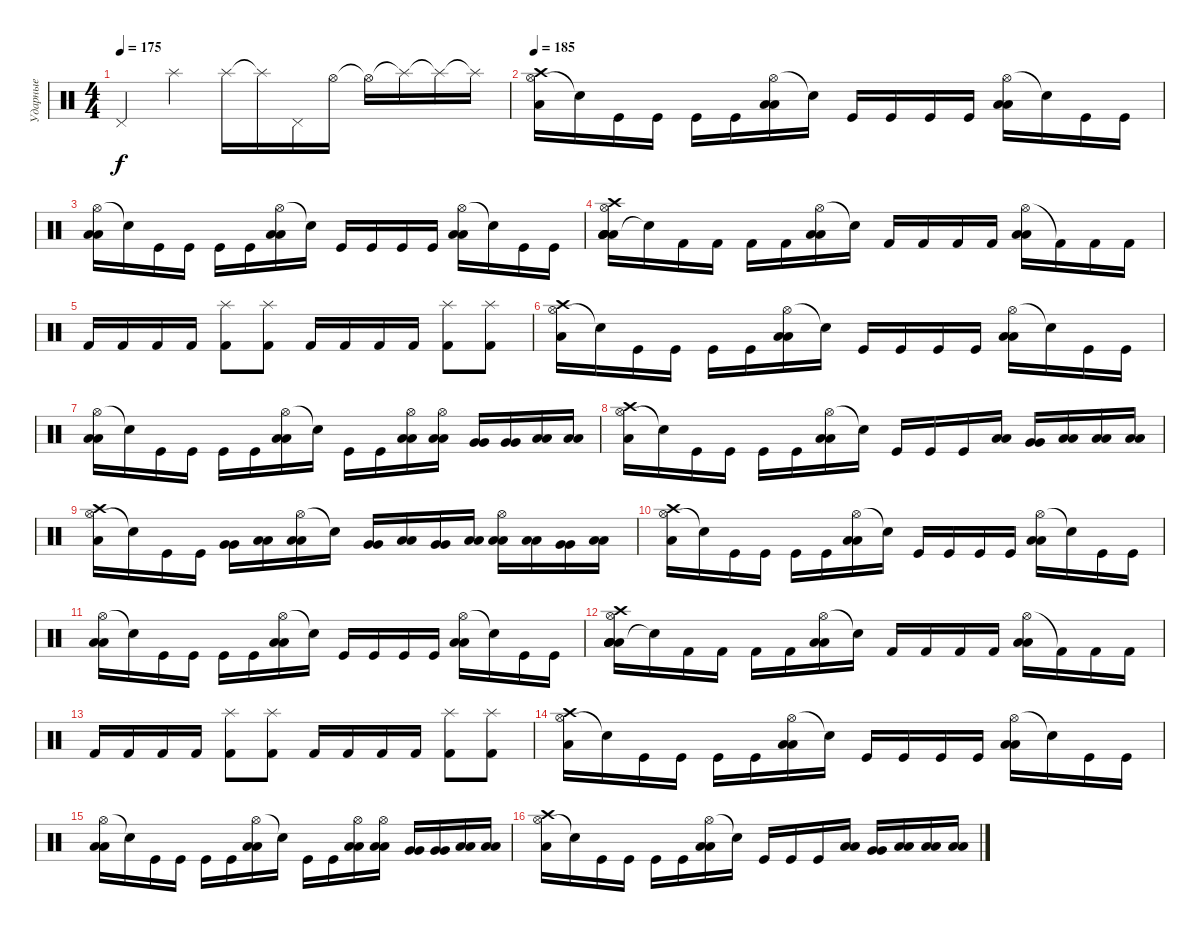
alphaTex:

\track ("Ударные" "Ударные") {instrument percussion}
\staff {score}
\articulation defaults
\ts (4 4)
\tempo 175
\clef neutral
\ks c "Pedal Hi-Hat (hit)".4{dy f} "Splash (hit)".4 "Splash (hit)".16 "Splash (hit)"{t}.16 "Pedal Hi-Hat (hit)".16 "Hi-Hat (open)".16 "Hi-Hat (open)"{t}.16 "Splash (hit)"{t}.16 "Splash (hit)"{t}.16 "Splash (hit)"{t}.16
|
\tempo 185
("Hi-Hat (open)" "Crash high (hit)" "Low Tom (hit)").16{volume 13} "Snare (hit)"{t}.16 "Kick (hit)".16 "Kick (hit)".16 "Kick (hit)".16 "Kick (hit)".16 ("Hi-Hat (open)" "Low Tom (hit)" "Low Tom (hit)").16 "Snare (hit)"{t}.16 "Kick (hit)".16 "Kick (hit)".16 "Kick (hit)".16 "Kick (hit)".16 ("Hi-Hat (open)" "Low Tom (hit)" "Low Tom (hit)").16 "Snare (hit)"{t}.16 "Kick (hit)".16 "Kick (hit)".16 |
("Hi-Hat (open)" "Low Tom (hit)" "Low Tom (hit)").16 "Snare (hit)"{t}.16 "Kick (hit)".16 "Kick (hit)".16 "Kick (hit)".16 "Kick (hit)".16 ("Hi-Hat (open)" "Low Tom (hit)" "Low Tom (hit)").16 "Snare (hit)"{t}.16 "Kick (hit)".16 "Kick (hit)".16 "Kick (hit)".16 "Kick (hit)".16 ("Hi-Hat (open)" "Low Tom (hit)" "Low Tom (hit)").16 "Snare (hit)"{t}.16 "Kick (hit)".16 "Kick (hit)".16 |
("Low Floor Tom (hit)" "Hi-Hat (open)" "Crash high (hit)" "Low Tom (hit)" "Low Floor Tom (hit)" "Low Floor Tom (hit)").16 "Snare (hit)"{t}.16 "Kick (hit) 2".16 "Kick (hit) 2".16 "Kick (hit) 2".16 "Kick (hit) 2".16 ("Hi-Hat (open)" "Low Tom (hit)" "Low Tom (hit)").16 "Snare (hit)"{t}.16 "Kick (hit) 2".16 "Kick (hit) 2".16 "Kick (hit) 2".16 "Kick (hit) 2".16 ("Hi-Hat (open)" "Low Tom (hit)" "Low Tom (hit)").16 "Kick (hit) 2"{t}.16 "Kick (hit) 2".16 "Kick (hit) 2".16 |
"Kick (hit) 2".16 "Kick (hit) 2".16 "Kick (hit) 2".16 "Kick (hit) 2".16 ("Splash (hit)" "Kick (hit) 2").8 ("Splash (hit)" "Kick (hit) 2").8 "Kick (hit) 2".16 "Kick (hit) 2".16 "Kick (hit) 2".16 "Kick (hit) 2".16 ("Splash (hit)" "Kick (hit) 2").8 ("Splash (hit)" "Kick (hit) 2").8 |
("Hi-Hat (open)" "Crash high (hit)" "Low Tom (hit)").16{volume 13} "Snare (hit)"{t}.16 "Kick (hit)".16 "Kick (hit)".16 "Kick (hit)".16 "Kick (hit)".16 ("Hi-Hat (open)" "Low Tom (hit)" "Low Tom (hit)").16 "Snare (hit)"{t}.16 "Kick (hit)".16 "Kick (hit)".16 "Kick (hit)".16 "Kick (hit)".16 ("Hi-Hat (open)" "Low Tom (hit)" "Low Tom (hit)").16 "Snare (hit)"{t}.16 "Kick (hit)".16 "Kick (hit)".16 |
("Hi-Hat (open)" "Low Tom (hit)" "Low Tom (hit)").16 "Snare (hit)"{t}.16 "Kick (hit)".16 "Kick (hit)".16 "Kick (hit)".16 "Kick (hit)".16 ("Hi-Hat (open)" "Low Tom (hit)" "Low Tom (hit)").16 "Snare (hit)"{t}.16 "Kick (hit)".16 "Kick (hit)".16 ("Hi-Hat (open)" "Low Tom (hit)" "Low Tom (hit)").16 ("Hi-Hat (open)" "Low Tom (hit)" "Low Tom (hit)").16 ("Very Low Tom (hit)" "Very Low Tom (hit)").16{balance 10} ("Very Low Tom (hit)" "Very Low Tom (hit)").16 ("Low Floor Tom (hit)" "Low Floor Tom (hit)").16{balance 6} ("Low Floor Tom (hit)" "Low Floor Tom (hit)").16 |
("Hi-Hat (open)" "Crash high (hit)" "Low Tom (hit)").16{balance 8} "Snare (hit)"{t}.16 "Kick (hit)".16 "Kick (hit)".16 "Kick (hit)".16 "Kick (hit)".16 ("Hi-Hat (open)" "Low Tom (hit)" "Low Tom (hit)").16 "Snare (hit)"{t}.16 "Kick (hit)".16 "Kick (hit)".16 "Kick (hit)".16 ("Low Tom (hit)" "Low Tom (hit)").16 ("Very Low Tom (hit)" "Very Low Tom (hit)").16{balance 10} ("Low Floor Tom (hit)" "Low Floor Tom (hit)").16{balance 6} ("Low Floor Tom (hit)" "Low Floor Tom (hit)").16 ("Low Floor Tom (hit)" "Low Floor Tom (hit)").16 |
("Hi-Hat (open)" "Crash high (hit)" "Low Tom (hit)").16{volume 13 balance 8} "Snare (hit)"{t}.16 "Kick (hit)".16 "Kick (hit)".16 ("Very Low Tom (hit)" "Very Low Tom (hit)").16{balance 10} ("Low Floor Tom (hit)" "Low Floor Tom (hit)").16{balance 5} ("Hi-Hat (open)" "Low Tom (hit)" "Low Tom (hit)").16{balance 8} "Snare (hit)"{t}.16 ("Very Low Tom (hit)" "Very Low Tom (hit)").16{balance 10} ("Low Floor Tom (hit)" "Low Floor Tom (hit)").16 ("Very Low Tom (hit)" "Very Low Tom (hit)").16{balance 10} ("Low Floor Tom (hit)" "Low Floor Tom (hit)").16 ("Hi-Hat (open)" "Low Tom (hit)" "Low Tom (hit)").16{balance 8} ("Low Floor Tom (hit)" "Low Floor Tom (hit)").16{balance 6} ("Very Low Tom (hit)" "Very Low Tom (hit)").16 ("Low Floor Tom (hit)" "Low Floor Tom (hit)").16{balance 5} |
("Hi-Hat (open)" "Crash high (hit)" "Low Tom (hit)").16{volume 13} "Snare (hit)"{t}.16 "Kick (hit)".16 "Kick (hit)".16 "Kick (hit)".16 "Kick (hit)".16 ("Hi-Hat (open)" "Low Tom (hit)" "Low Tom (hit)").16 "Snare (hit)"{t}.16 "Kick (hit)".16 "Kick (hit)".16 "Kick (hit)".16 "Kick (hit)".16 ("Hi-Hat (open)" "Low Tom (hit)" "Low Tom (hit)").16 "Snare (hit)"{t}.16 "Kick (hit)".16 "Kick (hit)".16 |
("Hi-Hat (open)" "Low Tom (hit)" "Low Tom (hit)").16 "Snare (hit)"{t}.16 "Kick (hit)".16 "Kick (hit)".16 "Kick (hit)".16 "Kick (hit)".16 ("Hi-Hat (open)" "Low Tom (hit)" "Low Tom (hit)").16 "Snare (hit)"{t}.16 "Kick (hit)".16 "Kick (hit)".16 "Kick (hit)".16 "Kick (hit)".16 ("Hi-Hat (open)" "Low Tom (hit)" "Low Tom (hit)").16 "Snare (hit)"{t}.16 "Kick (hit)".16 "Kick (hit)".16 |
("Low Floor Tom (hit)" "Hi-Hat (open)" "Crash high (hit)" "Low Tom (hit)" "Low Floor Tom (hit)" "Low Floor Tom (hit)").16 "Snare (hit)"{t}.16 "Kick (hit) 2".16 "Kick (hit) 2".16 "Kick (hit) 2".16 "Kick (hit) 2".16 ("Hi-Hat (open)" "Low Tom (hit)" "Low Tom (hit)").16 "Snare (hit)"{t}.16 "Kick (hit) 2".16 "Kick (hit) 2".16 "Kick (hit) 2".16 "Kick (hit) 2".16 ("Hi-Hat (open)" "Low Tom (hit)" "Low Tom (hit)").16 "Kick (hit) 2"{t}.16 "Kick (hit) 2".16 "Kick (hit) 2".16 |
"Kick (hit) 2".16 "Kick (hit) 2".16 "Kick (hit) 2".16 "Kick (hit) 2".16 ("Splash (hit)" "Kick (hit) 2").8 ("Splash (hit)" "Kick (hit) 2").8 "Kick (hit) 2".16 "Kick (hit) 2".16 "Kick (hit) 2".16 "Kick (hit) 2".16 ("Splash (hit)" "Kick (hit) 2").8 ("Splash (hit)" "Kick (hit) 2").8 |
("Hi-Hat (open)" "Crash high (hit)" "Low Tom (hit)").16{volume 13} "Snare (hit)"{t}.16 "Kick (hit)".16 "Kick (hit)".16 "Kick (hit)".16 "Kick (hit)".16 ("Hi-Hat (open)" "Low Tom (hit)" "Low Tom (hit)").16 "Snare (hit)"{t}.16 "Kick (hit)".16 "Kick (hit)".16 "Kick (hit)".16 "Kick (hit)".16 ("Hi-Hat (open)" "Low Tom (hit)" "Low Tom (hit)").16 "Snare (hit)"{t}.16 "Kick (hit)".16 "Kick (hit)".16 |
("Hi-Hat (open)" "Low Tom (hit)" "Low Tom (hit)").16 "Snare (hit)"{t}.16 "Kick (hit)".16 "Kick (hit)".16 "Kick (hit)".16 "Kick (hit)".16 ("Hi-Hat (open)" "Low Tom (hit)" "Low Tom (hit)").16 "Snare (hit)"{t}.16 "Kick (hit)".16 "Kick (hit)".16 ("Hi-Hat (open)" "Low Tom (hit)" "Low Tom (hit)").16 ("Hi-Hat (open)" "Low Tom (hit)" "Low Tom (hit)").16 ("Very Low Tom (hit)" "Very Low Tom (hit)").16{balance 10} ("Very Low Tom (hit)" "Very Low Tom (hit)").16 ("Low Floor Tom (hit)" "Low Floor Tom (hit)").16{balance 6} ("Low Floor Tom (hit)" "Low Floor Tom (hit)").16 |
("Hi-Hat (open)" "Crash high (hit)" "Low Tom (hit)").16{balance 8} "Snare (hit)"{t}.16 "Kick (hit)".16 "Kick (hit)".16 "Kick (hit)".16 "Kick (hit)".16 ("Hi-Hat (open)" "Low Tom (hit)" "Low Tom (hit)").16 "Snare (hit)"{t}.16 "Kick (hit)".16 "Kick (hit)".16 "Kick (hit)".16 ("Low Tom (hit)" "Low Tom (hit)").16 ("Very Low Tom (hit)" "Very Low Tom (hit)").16{balance 10} ("Low Floor Tom (hit)" "Low Floor Tom (hit)").16{balance 6} ("Low Floor Tom (hit)" "Low Floor Tom (hit)").16 ("Low Floor Tom (hit)" "Low Floor Tom (hit)").16
